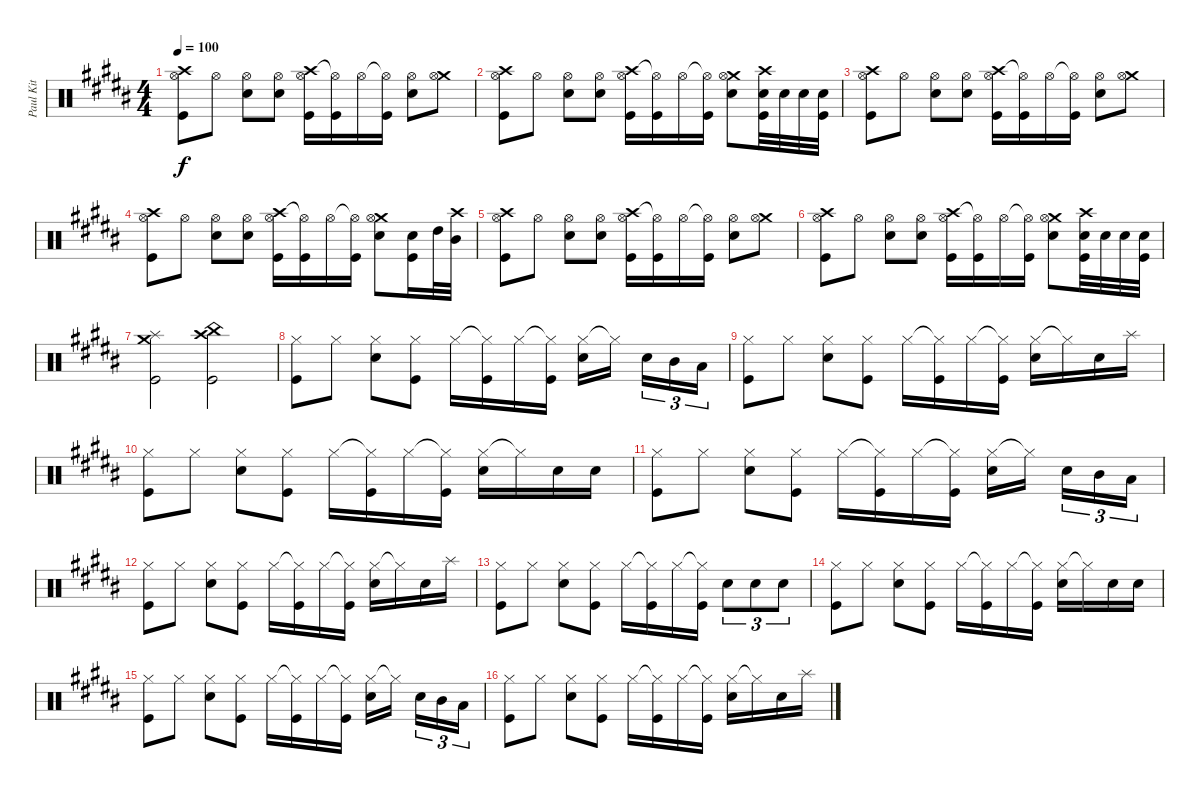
\track ("Paul Kit" "Paul Kit") {instrument percussion}
\staff {score}
\articulation defaults
\ts (4 4)
\tempo 100
\clef neutral
\ks b
("Crash high (hit)" "Hi-Hat (open)" "Kick (hit)").8{dy f} "Hi-Hat (open)".8 ("Hi-Hat (open)" "Snare (hit) 2").8 ("Hi-Hat (open)" "Snare (hit) 2").8 ("Crash high (hit)" "Hi-Hat (open)" "Kick (hit)").16 ("Hi-Hat (open)"{t} "Kick (hit)").16 "Hi-Hat (open)".16 ("Hi-Hat (open)"{t} "Kick (hit)").16 ("Hi-Hat (open)" "Snare (hit) 2").8 ("Crash medium (hit)" "Hi-Hat (open)").8 |
("Crash high (hit)" "Hi-Hat (open)" "Kick (hit)").8 "Hi-Hat (open)".8 ("Hi-Hat (open)" "Snare (hit) 2").8 ("Hi-Hat (open)" "Snare (hit) 2").8 ("Crash high (hit)" "Hi-Hat (open)" "Kick (hit)").16 ("Hi-Hat (open)"{t} "Kick (hit)").16 "Hi-Hat (open)".16 ("Hi-Hat (open)"{t} "Kick (hit)").16 ("Crash medium (hit)" "Hi-Hat (open)" "Snare (hit) 2").8 ("Crash high (hit)" "Snare (hit) 2" "Kick (hit)").32 "Snare (hit) 2".32 "Snare (hit) 2".32 ("Snare (hit) 2" "Kick (hit)").32 |
("Crash high (hit)" "Hi-Hat (open)" "Kick (hit)").8 "Hi-Hat (open)".8 ("Hi-Hat (open)" "Snare (hit) 2").8 ("Hi-Hat (open)" "Snare (hit) 2").8 ("Crash high (hit)" "Hi-Hat (open)" "Kick (hit)").16 ("Hi-Hat (open)"{t} "Kick (hit)").16 "Hi-Hat (open)".16 ("Hi-Hat (open)"{t} "Kick (hit)").16 ("Hi-Hat (open)" "Snare (hit) 2").8 ("Crash medium (hit)" "Hi-Hat (open)").8 |
("Crash high (hit)" "Hi-Hat (open)" "Kick (hit)").8 "Hi-Hat (open)".8 ("Hi-Hat (open)" "Snare (hit) 2").8 ("Hi-Hat (open)" "Snare (hit) 2").8 ("Crash high (hit)" "Hi-Hat (open)" "Kick (hit)").16 ("Hi-Hat (open)"{t} "Kick (hit)").16 "Hi-Hat (open)".16 ("Hi-Hat (open)"{t} "Kick (hit)").16 ("Crash medium (hit)" "Hi-Hat (open)" "Snare (hit) 2").8 ("Snare (hit) 2" "Kick (hit)").16 "High Tom (hit)".32 ("Crash high (hit)" "Mid Tom (hit)").32 |
("Crash high (hit)" "Hi-Hat (open)" "Kick (hit)").8 "Hi-Hat (open)".8 ("Hi-Hat (open)" "Snare (hit) 2").8 ("Hi-Hat (open)" "Snare (hit) 2").8 ("Crash high (hit)" "Hi-Hat (open)" "Kick (hit)").16 ("Hi-Hat (open)"{t} "Kick (hit)").16 "Hi-Hat (open)".16 ("Hi-Hat (open)"{t} "Kick (hit)").16 ("Hi-Hat (open)" "Snare (hit) 2").8 ("Crash medium (hit)" "Hi-Hat (open)").8 |
("Crash high (hit)" "Hi-Hat (open)" "Kick (hit)").8 "Hi-Hat (open)".8 ("Hi-Hat (open)" "Snare (hit) 2").8 ("Hi-Hat (open)" "Snare (hit) 2").8 ("Crash high (hit)" "Hi-Hat (open)" "Kick (hit)").16 ("Hi-Hat (open)"{t} "Kick (hit)").16 "Hi-Hat (open)".16 ("Hi-Hat (open)"{t} "Kick (hit)").16 ("Crash medium (hit)" "Hi-Hat (open)" "Snare (hit) 2").8 ("Crash high (hit)" "Snare (hit) 2" "Kick (hit)").32 "Snare (hit) 2".32 "Snare (hit) 2".32 ("Snare (hit) 2" "Kick (hit)").32 |
("Splash (hit)" "Crash medium (hit)" "Kick (hit)").2 ("China (hit)" "Crash high (hit)" "Kick (hit)").2 |
("Hi-Hat (closed)" "Kick (hit)").8 "Hi-Hat (closed)".8 ("Hi-Hat (closed)" "Snare (hit) 2").8 ("Hi-Hat (closed)" "Kick (hit)").8 "Hi-Hat (closed)".16 ("Hi-Hat (closed)"{t} "Kick (hit)").16 "Hi-Hat (closed)".16 ("Hi-Hat (closed)"{t} "Kick (hit)").16 ("Hi-Hat (closed)" "Snare (hit) 2").16 "Hi-Hat (closed)"{t}.16 "Snare (hit) 2".16{tu (3 2)} "Mid Tom (hit)".16{tu (3 2)} "Low Tom (hit)".16{tu (3 2)} |
("Hi-Hat (closed)" "Kick (hit)").8 "Hi-Hat (closed)".8 ("Hi-Hat (closed)" "Snare (hit) 2").8 ("Hi-Hat (closed)" "Kick (hit)").8 "Hi-Hat (closed)".16 ("Hi-Hat (closed)"{t} "Kick (hit)").16 "Hi-Hat (closed)".16 ("Hi-Hat (closed)"{t} "Kick (hit)").16 ("Hi-Hat (closed)" "Snare (hit) 2").16 "Hi-Hat (closed)"{t}.16 "Snare (hit) 2".16 "Splash (hit)".16 |
("Hi-Hat (closed)" "Kick (hit)").8 "Hi-Hat (closed)".8 ("Hi-Hat (closed)" "Snare (hit) 2").8 ("Hi-Hat (closed)" "Kick (hit)").8 "Hi-Hat (closed)".16 ("Hi-Hat (closed)"{t} "Kick (hit)").16 "Hi-Hat (closed)".16 ("Hi-Hat (closed)"{t} "Kick (hit)").16 ("Hi-Hat (closed)" "Snare (hit) 2").16 "Hi-Hat (closed)"{t}.16 "Snare (hit) 2".16 "Snare (hit) 2".16 |
("Hi-Hat (closed)" "Kick (hit)").8 "Hi-Hat (closed)".8 ("Hi-Hat (closed)" "Snare (hit) 2").8 ("Hi-Hat (closed)" "Kick (hit)").8 "Hi-Hat (closed)".16 ("Hi-Hat (closed)"{t} "Kick (hit)").16 "Hi-Hat (closed)".16 ("Hi-Hat (closed)"{t} "Kick (hit)").16 ("Hi-Hat (closed)" "Snare (hit) 2").16 "Hi-Hat (closed)"{t}.16 "Snare (hit) 2".16{tu (3 2)} "Mid Tom (hit)".16{tu (3 2)} "Low Tom (hit)".16{tu (3 2)} |
("Hi-Hat (closed)" "Kick (hit)").8 "Hi-Hat (closed)".8 ("Hi-Hat (closed)" "Snare (hit) 2").8 ("Hi-Hat (closed)" "Kick (hit)").8 "Hi-Hat (closed)".16 ("Hi-Hat (closed)"{t} "Kick (hit)").16 "Hi-Hat (closed)".16 ("Hi-Hat (closed)"{t} "Kick (hit)").16 ("Hi-Hat (closed)" "Snare (hit) 2").16 "Hi-Hat (closed)"{t}.16 "Snare (hit) 2".16 "Splash (hit)".16 |
("Hi-Hat (closed)" "Kick (hit)").8 "Hi-Hat (closed)".8 ("Hi-Hat (closed)" "Snare (hit) 2").8 ("Hi-Hat (closed)" "Kick (hit)").8 "Hi-Hat (closed)".16 ("Hi-Hat (closed)"{t} "Kick (hit)").16 "Hi-Hat (closed)".16 ("Hi-Hat (closed)"{t} "Kick (hit)").16 "Snare (hit) 2".8{tu (3 2)} "Snare (hit) 2".8{tu (3 2)} "Snare (hit) 2".8{tu (3 2)} |
("Hi-Hat (closed)" "Kick (hit)").8 "Hi-Hat (closed)".8 ("Hi-Hat (closed)" "Snare (hit) 2").8 ("Hi-Hat (closed)" "Kick (hit)").8 "Hi-Hat (closed)".16 ("Hi-Hat (closed)"{t} "Kick (hit)").16 "Hi-Hat (closed)".16 ("Hi-Hat (closed)"{t} "Kick (hit)").16 ("Hi-Hat (closed)" "Snare (hit) 2").16 "Hi-Hat (closed)"{t}.16 "Snare (hit) 2".16 "Snare (hit) 2".16 |
("Hi-Hat (closed)" "Kick (hit)").8 "Hi-Hat (closed)".8 ("Hi-Hat (closed)" "Snare (hit) 2").8 ("Hi-Hat (closed)" "Kick (hit)").8 "Hi-Hat (closed)".16 ("Hi-Hat (closed)"{t} "Kick (hit)").16 "Hi-Hat (closed)".16 ("Hi-Hat (closed)"{t} "Kick (hit)").16 ("Hi-Hat (closed)" "Snare (hit) 2").16 "Hi-Hat (closed)"{t}.16 "Snare (hit) 2".16{tu (3 2)} "Mid Tom (hit)".16{tu (3 2)} "Low Tom (hit)".16{tu (3 2)} |
("Hi-Hat (closed)" "Kick (hit)").8 "Hi-Hat (closed)".8 ("Hi-Hat (closed)" "Snare (hit) 2").8 ("Hi-Hat (closed)" "Kick (hit)").8 "Hi-Hat (closed)".16 ("Hi-Hat (closed)"{t} "Kick (hit)").16 "Hi-Hat (closed)".16 ("Hi-Hat (closed)"{t} "Kick (hit)").16 ("Hi-Hat (closed)" "Snare (hit) 2").16 "Hi-Hat (closed)"{t}.16 "Snare (hit) 2".16 "Splash (hit)".16
